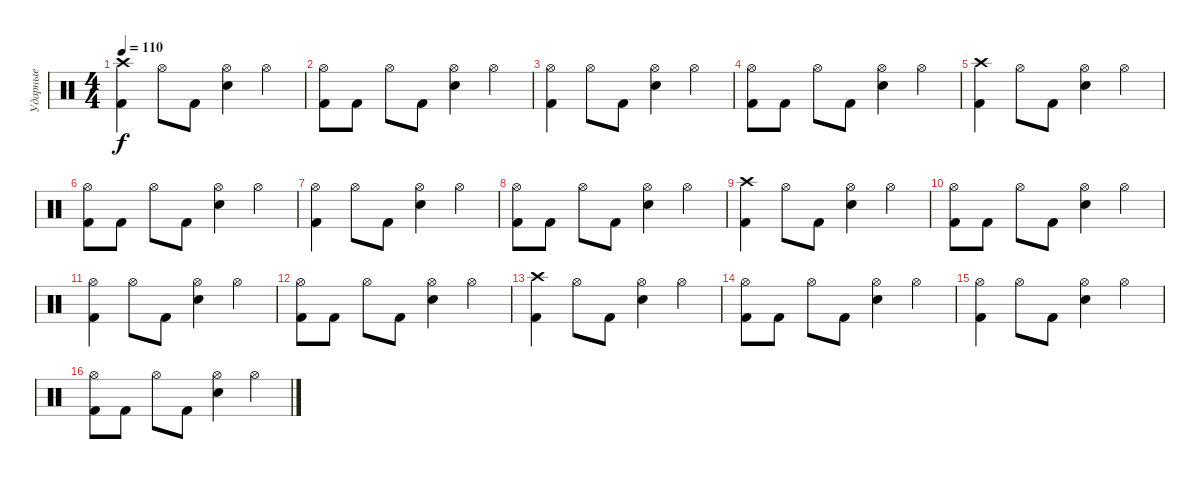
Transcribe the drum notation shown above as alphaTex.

\track ("Ударные" "Ударные") {instrument percussion}
\staff {score}
\articulation defaults
\ts (4 4)
\tempo 110
\clef neutral
\ks c
("Crash high (hit)" "Kick (hit) 2").4{dy f} "Hi-Hat (open)".8 "Kick (hit) 2".8 ("Hi-Hat (open)" "Snare (hit) 2").4 "Hi-Hat (open)".4 |
("Hi-Hat (open)" "Kick (hit) 2").8 "Kick (hit) 2".8 "Hi-Hat (open)".8 "Kick (hit) 2".8 ("Hi-Hat (open)" "Snare (hit) 2").4 "Hi-Hat (open)".4 |
("Hi-Hat (open)" "Kick (hit) 2").4 "Hi-Hat (open)".8 "Kick (hit) 2".8 ("Hi-Hat (open)" "Snare (hit) 2").4 "Hi-Hat (open)".4 |
("Hi-Hat (open)" "Kick (hit) 2").8 "Kick (hit) 2".8 "Hi-Hat (open)".8 "Kick (hit) 2".8 ("Hi-Hat (open)" "Snare (hit) 2").4 "Hi-Hat (open)".4 |
("Crash high (hit)" "Kick (hit) 2").4 "Hi-Hat (open)".8 "Kick (hit) 2".8 ("Hi-Hat (open)" "Snare (hit) 2").4 "Hi-Hat (open)".4 |
("Hi-Hat (open)" "Kick (hit) 2").8 "Kick (hit) 2".8 "Hi-Hat (open)".8 "Kick (hit) 2".8 ("Hi-Hat (open)" "Snare (hit) 2").4 "Hi-Hat (open)".4 |
("Hi-Hat (open)" "Kick (hit) 2").4 "Hi-Hat (open)".8 "Kick (hit) 2".8 ("Hi-Hat (open)" "Snare (hit) 2").4 "Hi-Hat (open)".4 |
("Hi-Hat (open)" "Kick (hit) 2").8 "Kick (hit) 2".8 "Hi-Hat (open)".8 "Kick (hit) 2".8 ("Hi-Hat (open)" "Snare (hit) 2").4 "Hi-Hat (open)".4 |
("Crash high (hit)" "Kick (hit) 2").4 "Hi-Hat (open)".8 "Kick (hit) 2".8 ("Hi-Hat (open)" "Snare (hit) 2").4 "Hi-Hat (open)".4 |
("Hi-Hat (open)" "Kick (hit) 2").8 "Kick (hit) 2".8 "Hi-Hat (open)".8 "Kick (hit) 2".8 ("Hi-Hat (open)" "Snare (hit) 2").4 "Hi-Hat (open)".4 |
("Hi-Hat (open)" "Kick (hit) 2").4 "Hi-Hat (open)".8 "Kick (hit) 2".8 ("Hi-Hat (open)" "Snare (hit) 2").4 "Hi-Hat (open)".4 |
("Hi-Hat (open)" "Kick (hit) 2").8 "Kick (hit) 2".8 "Hi-Hat (open)".8 "Kick (hit) 2".8 ("Hi-Hat (open)" "Snare (hit) 2").4 "Hi-Hat (open)".4 |
("Crash high (hit)" "Kick (hit) 2").4 "Hi-Hat (open)".8 "Kick (hit) 2".8 ("Hi-Hat (open)" "Snare (hit) 2").4 "Hi-Hat (open)".4 |
("Hi-Hat (open)" "Kick (hit) 2").8 "Kick (hit) 2".8 "Hi-Hat (open)".8 "Kick (hit) 2".8 ("Hi-Hat (open)" "Snare (hit) 2").4 "Hi-Hat (open)".4 |
("Hi-Hat (open)" "Kick (hit) 2").4 "Hi-Hat (open)".8 "Kick (hit) 2".8 ("Hi-Hat (open)" "Snare (hit) 2").4 "Hi-Hat (open)".4 |
("Hi-Hat (open)" "Kick (hit) 2").8 "Kick (hit) 2".8 "Hi-Hat (open)".8 "Kick (hit) 2".8 ("Hi-Hat (open)" "Snare (hit) 2").4 "Hi-Hat (open)".4
